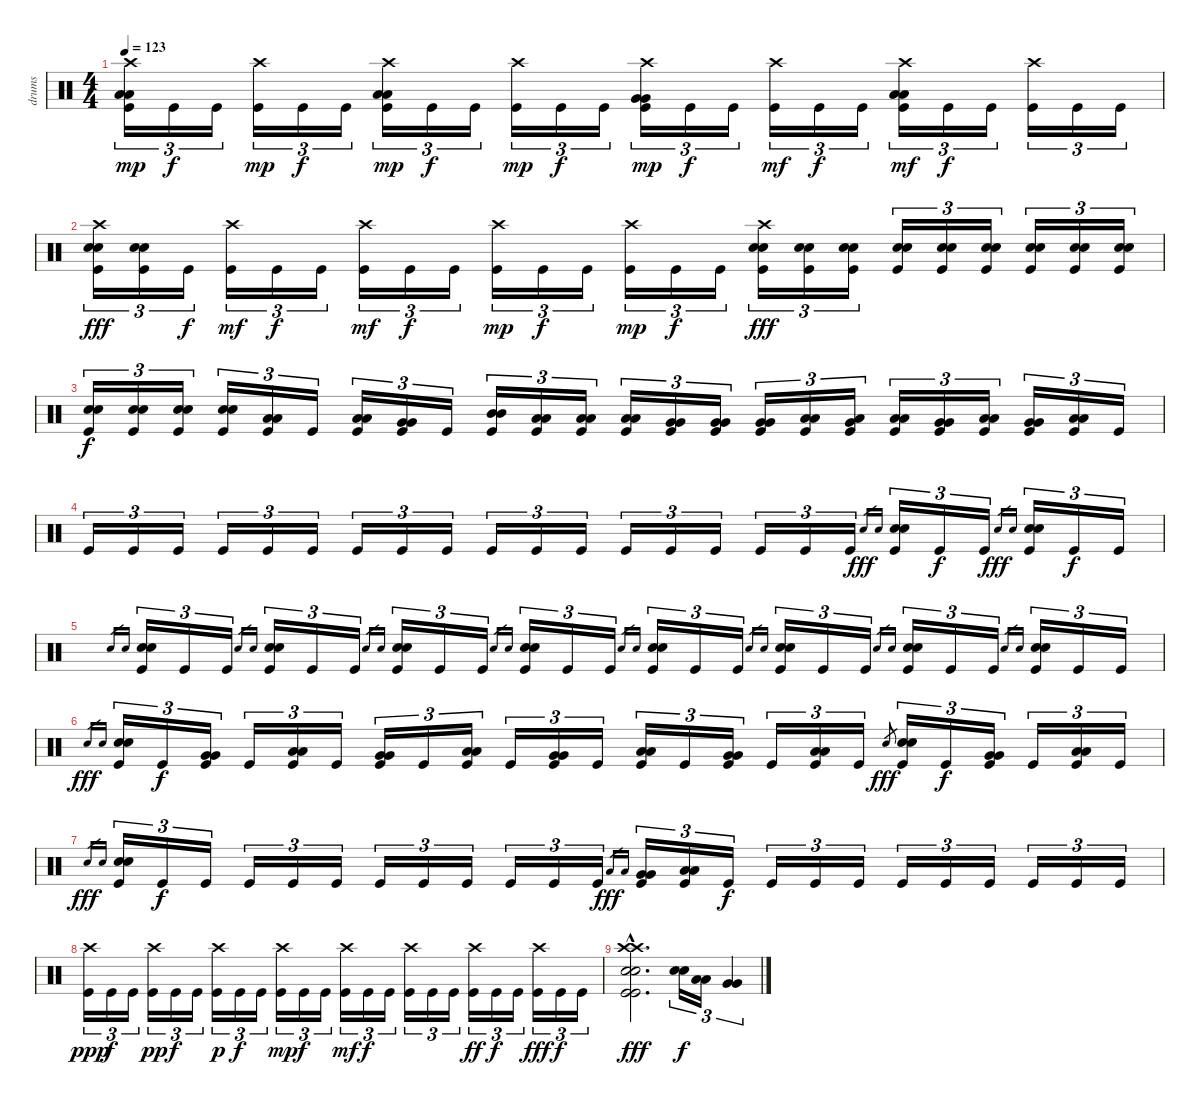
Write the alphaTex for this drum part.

\track ("drums" "drums") {instrument percussion}
\staff {score}
\articulation defaults
\ts (4 4)
\tempo 123
\clef neutral
\ks c
("Crash high (hit)" "Low Floor Tom (hit)" "Low Floor Tom (hit)" "Kick (hit)").16{tu (3 2) dy mp} "Kick (hit)".16{tu (3 2) dy f} "Kick (hit)".16{tu (3 2)} ("Crash high (hit)" "Kick (hit)").16{tu (3 2) dy mp} "Kick (hit)".16{tu (3 2) dy f} "Kick (hit)".16{tu (3 2)} ("Crash high (hit)" "Low Tom (hit)" "Low Tom (hit)" "Kick (hit)").16{tu (3 2) dy mp} "Kick (hit)".16{tu (3 2) dy f} "Kick (hit)".16{tu (3 2)} ("Crash high (hit)" "Kick (hit)").16{tu (3 2) dy mp} "Kick (hit)".16{tu (3 2) dy f} "Kick (hit)".16{tu (3 2)} ("Crash high (hit)" "Very Low Tom (hit)" "Very Low Tom (hit)" "Kick (hit)").16{tu (3 2) dy mp} "Kick (hit)".16{tu (3 2) dy f} "Kick (hit)".16{tu (3 2)} ("Crash high (hit)" "Kick (hit)").16{tu (3 2) dy mf} "Kick (hit)".16{tu (3 2) dy f} "Kick (hit)".16{tu (3 2)} ("Crash high (hit)" "Low Floor Tom (hit)" "Low Floor Tom (hit)" "Kick (hit)").16{tu (3 2) dy mf} "Kick (hit)".16{tu (3 2) dy f} "Kick (hit)".16{tu (3 2)} ("Crash high (hit)" "Kick (hit)").16{tu (3 2)} "Kick (hit)".16{tu (3 2)} "Kick (hit)".16{tu (3 2)} |
("Crash high (hit)" "Snare (hit) 2" "Snare (hit) 2" "Kick (hit)").16{tu (3 2) dy fff} ("Snare (hit) 2" "Snare (hit) 2" "Kick (hit)").16{tu (3 2)} "Kick (hit)".16{tu (3 2) dy f} ("Crash high (hit)" "Kick (hit)").16{tu (3 2) dy mf} "Kick (hit)".16{tu (3 2) dy f} "Kick (hit)".16{tu (3 2)} ("Crash high (hit)" "Kick (hit)").16{tu (3 2) dy mf} "Kick (hit)".16{tu (3 2) dy f} "Kick (hit)".16{tu (3 2)} ("Crash high (hit)" "Kick (hit)").16{tu (3 2) dy mp} "Kick (hit)".16{tu (3 2) dy f} "Kick (hit)".16{tu (3 2)} ("Crash high (hit)" "Kick (hit)").16{tu (3 2) dy mp} "Kick (hit)".16{tu (3 2) dy f} "Kick (hit)".16{tu (3 2)} ("Crash high (hit)" "Snare (hit) 2" "Snare (hit) 2" "Kick (hit)").16{tu (3 2) dy fff} ("Snare (hit) 2" "Snare (hit) 2" "Kick (hit)").16{tu (3 2)} ("Snare (hit) 2" "Snare (hit) 2" "Kick (hit)").16{tu (3 2)} ("Snare (hit) 2" "Snare (hit) 2" "Kick (hit)").16{tu (3 2)} ("Snare (hit) 2" "Snare (hit) 2" "Kick (hit)").16{tu (3 2)} ("Snare (hit) 2" "Snare (hit) 2" "Kick (hit)").16{tu (3 2)} ("Snare (hit) 2" "Snare (hit) 2" "Kick (hit)").16{tu (3 2)} ("Snare (hit) 2" "Snare (hit) 2" "Kick (hit)").16{tu (3 2)} ("Snare (hit) 2" "Snare (hit) 2" "Kick (hit)").16{tu (3 2)} |
("Snare (hit) 2" "Snare (hit) 2" "Kick (hit)").16{tu (3 2) dy f} ("Snare (hit) 2" "Snare (hit) 2" "Kick (hit)").16{tu (3 2)} ("Snare (hit) 2" "Snare (hit) 2" "Kick (hit)").16{tu (3 2)} ("Snare (hit) 2" "Snare (hit) 2" "Kick (hit)").16{tu (3 2)} ("Low Tom (hit)" "Low Tom (hit)" "Kick (hit)").16{tu (3 2)} "Kick (hit)".16{tu (3 2)} ("Low Tom (hit)" "Low Tom (hit)" "Kick (hit)").16{tu (3 2)} ("Very Low Tom (hit)" "Very Low Tom (hit)" "Kick (hit)").16{tu (3 2)} "Kick (hit)".16{tu (3 2)} ("Mid Tom (hit)" "Mid Tom (hit)" "Kick (hit)").16{tu (3 2)} ("Low Tom (hit)" "Low Tom (hit)" "Kick (hit)").16{tu (3 2)} ("Low Floor Tom (hit)" "Low Floor Tom (hit)" "Kick (hit)").16{tu (3 2)} ("Low Tom (hit)" "Low Tom (hit)" "Kick (hit)").16{tu (3 2)} ("Very Low Tom (hit)" "Very Low Tom (hit)" "Kick (hit)").16{tu (3 2)} ("Very Low Tom (hit)" "Very Low Tom (hit)" "Kick (hit)").16{tu (3 2)} ("Very Low Tom (hit)" "Very Low Tom (hit)" "Kick (hit)").16{tu (3 2)} ("Low Floor Tom (hit)" "Low Floor Tom (hit)" "Kick (hit)").16{tu (3 2)} ("Very Low Tom (hit)" "Low Floor Tom (hit)" "Kick (hit)").16{tu (3 2)} ("Low Tom (hit)" "Low Tom (hit)" "Kick (hit)").16{tu (3 2)} ("Very Low Tom (hit)" "Very Low Tom (hit)" "Kick (hit)").16{tu (3 2)} ("Low Floor Tom (hit)" "Low Floor Tom (hit)" "Kick (hit)").16{tu (3 2)} ("Very Low Tom (hit)" "Very Low Tom (hit)" "Kick (hit)").16{tu (3 2)} ("Low Floor Tom (hit)" "Low Floor Tom (hit)" "Kick (hit)").16{tu (3 2)} "Kick (hit)".16{tu (3 2)} |
"Kick (hit)".16{tu (3 2)} "Kick (hit)".16{tu (3 2)} "Kick (hit)".16{tu (3 2)} "Kick (hit)".16{tu (3 2)} "Kick (hit)".16{tu (3 2)} "Kick (hit)".16{tu (3 2)} "Kick (hit)".16{tu (3 2)} "Kick (hit)".16{tu (3 2)} "Kick (hit)".16{tu (3 2)} "Kick (hit)".16{tu (3 2)} "Kick (hit)".16{tu (3 2)} "Kick (hit)".16{tu (3 2)} "Kick (hit)".16{tu (3 2)} "Kick (hit)".16{tu (3 2)} "Kick (hit)".16{tu (3 2)} "Kick (hit)".16{tu (3 2)} "Kick (hit)".16{tu (3 2)} "Kick (hit)".16{tu (3 2)} "Snare (hit) 2".16{gr dy fff} "Snare (hit) 2".16{gr} ("Snare (hit) 2" "Snare (hit) 2" "Kick (hit)").16{tu (3 2)} "Kick (hit)".16{tu (3 2) dy f} "Kick (hit)".16{tu (3 2)} "Snare (hit) 2".16{gr dy fff} "Snare (hit) 2".16{gr} ("Snare (hit) 2" "Snare (hit) 2" "Kick (hit)").16{tu (3 2)} "Kick (hit)".16{tu (3 2) dy f} "Kick (hit)".16{tu (3 2)} |
"Snare (hit) 2".16{gr} "Snare (hit) 2".16{gr} ("Snare (hit) 2" "Snare (hit) 2" "Kick (hit)").16{tu (3 2)} "Kick (hit)".16{tu (3 2)} "Kick (hit)".16{tu (3 2)} "Snare (hit) 2".16{gr} "Snare (hit) 2".16{gr} ("Snare (hit) 2" "Snare (hit) 2" "Kick (hit)").16{tu (3 2)} "Kick (hit)".16{tu (3 2)} "Kick (hit)".16{tu (3 2)} "Snare (hit) 2".16{gr} "Snare (hit) 2".16{gr} ("Snare (hit) 2" "Snare (hit) 2" "Kick (hit)").16{tu (3 2)} "Kick (hit)".16{tu (3 2)} "Kick (hit)".16{tu (3 2)} "Snare (hit) 2".16{gr} "Snare (hit) 2".16{gr} ("Snare (hit) 2" "Snare (hit) 2" "Kick (hit)").16{tu (3 2)} "Kick (hit)".16{tu (3 2)} "Kick (hit)".16{tu (3 2)} "Snare (hit) 2".16{gr} "Snare (hit) 2".16{gr} ("Snare (hit) 2" "Snare (hit) 2" "Kick (hit)").16{tu (3 2)} "Kick (hit)".16{tu (3 2)} "Kick (hit)".16{tu (3 2)} "Snare (hit) 2".16{gr} "Snare (hit) 2".16{gr} ("Snare (hit) 2" "Snare (hit) 2" "Kick (hit)").16{tu (3 2)} "Kick (hit)".16{tu (3 2)} "Kick (hit)".16{tu (3 2)} "Snare (hit) 2".16{gr} "Snare (hit) 2".16{gr} ("Snare (hit) 2" "Snare (hit) 2" "Kick (hit)").16{tu (3 2)} "Kick (hit)".16{tu (3 2)} "Kick (hit)".16{tu (3 2)} "Snare (hit) 2".16{gr} "Snare (hit) 2".16{gr} ("Snare (hit) 2" "Snare (hit) 2" "Kick (hit)").16{tu (3 2)} "Kick (hit)".16{tu (3 2)} "Kick (hit)".16{tu (3 2)} |
"Snare (hit) 2".16{gr dy fff} "Snare (hit) 2".16{gr} ("Snare (hit) 2" "Snare (hit) 2" "Kick (hit)").16{tu (3 2)} "Kick (hit)".16{tu (3 2) dy f} ("Very Low Tom (hit)" "Very Low Tom (hit)" "Kick (hit)").16{tu (3 2)} "Kick (hit)".16{tu (3 2)} ("Low Floor Tom (hit)" "Low Floor Tom (hit)" "Kick (hit)").16{tu (3 2)} "Kick (hit)".16{tu (3 2)} ("Very Low Tom (hit)" "Very Low Tom (hit)" "Kick (hit)").16{tu (3 2)} "Kick (hit)".16{tu (3 2)} ("Low Floor Tom (hit)" "Low Floor Tom (hit)" "Kick (hit)").16{tu (3 2)} "Kick (hit)".16{tu (3 2)} ("Very Low Tom (hit)" "Very Low Tom (hit)" "Kick (hit)").16{tu (3 2)} "Kick (hit)".16{tu (3 2)} ("Low Floor Tom (hit)" "Low Floor Tom (hit)" "Kick (hit)").16{tu (3 2)} "Kick (hit)".16{tu (3 2)} ("Very Low Tom (hit)" "Very Low Tom (hit)" "Kick (hit)").16{tu (3 2)} "Kick (hit)".16{tu (3 2)} ("Low Floor Tom (hit)" "Low Floor Tom (hit)" "Kick (hit)").16{tu (3 2)} "Kick (hit)".16{tu (3 2)} "Snare (hit) 2".8{gr dy fff} ("Snare (hit) 2" "Snare (hit) 2" "Kick (hit)").16{tu (3 2)} "Kick (hit)".16{tu (3 2) dy f} ("Very Low Tom (hit)" "Very Low Tom (hit)" "Kick (hit)").16{tu (3 2)} "Kick (hit)".16{tu (3 2)} ("Low Floor Tom (hit)" "Low Floor Tom (hit)" "Kick (hit)").16{tu (3 2)} "Kick (hit)".16{tu (3 2)} |
"Snare (hit) 2".16{gr dy fff} "Snare (hit) 2".16{gr} ("Snare (hit) 2" "Snare (hit) 2" "Kick (hit)").16{tu (3 2)} "Kick (hit)".16{tu (3 2) dy f} "Kick (hit)".16{tu (3 2)} "Kick (hit)".16{tu (3 2)} "Kick (hit)".16{tu (3 2)} "Kick (hit)".16{tu (3 2)} "Kick (hit)".16{tu (3 2)} "Kick (hit)".16{tu (3 2)} "Kick (hit)".16{tu (3 2)} "Kick (hit)".16{tu (3 2)} "Kick (hit)".16{tu (3 2)} "Kick (hit)".16{tu (3 2)} "Low Tom (hit)".16{gr dy fff} "Low Tom (hit)".16{gr} ("Very Low Tom (hit)" "Very Low Tom (hit)" "Kick (hit)").16{tu (3 2)} ("Low Floor Tom (hit)" "Low Floor Tom (hit)" "Kick (hit)").16{tu (3 2)} "Kick (hit)".16{tu (3 2) dy f} "Kick (hit)".16{tu (3 2)} "Kick (hit)".16{tu (3 2)} "Kick (hit)".16{tu (3 2)} "Kick (hit)".16{tu (3 2)} "Kick (hit)".16{tu (3 2)} "Kick (hit)".16{tu (3 2)} "Kick (hit)".16{tu (3 2)} "Kick (hit)".16{tu (3 2)} "Kick (hit)".16{tu (3 2)} |
("Crash high (hit)" "Kick (hit)").16{tu (3 2) dy ppp} "Kick (hit)".16{tu (3 2) dy f} "Kick (hit)".16{tu (3 2)} ("Crash high (hit)" "Kick (hit)").16{tu (3 2) dy pp} "Kick (hit)".16{tu (3 2) dy f} "Kick (hit)".16{tu (3 2)} ("Crash high (hit)" "Kick (hit)").16{tu (3 2) dy p} "Kick (hit)".16{tu (3 2) dy f} "Kick (hit)".16{tu (3 2)} ("Crash high (hit)" "Kick (hit)").16{tu (3 2) dy mp} "Kick (hit)".16{tu (3 2) dy f} "Kick (hit)".16{tu (3 2)} ("Crash high (hit)" "Kick (hit)").16{tu (3 2) dy mf} "Kick (hit)".16{tu (3 2) dy f} "Kick (hit)".16{tu (3 2)} ("Crash high (hit)" "Kick (hit)").16{tu (3 2)} "Kick (hit)".16{tu (3 2)} "Kick (hit)".16{tu (3 2)} ("Crash high (hit)" "Kick (hit)").16{tu (3 2) dy ff} "Kick (hit)".16{tu (3 2) dy f} "Kick (hit)".16{tu (3 2)} ("Crash high (hit)" "Kick (hit)").16{tu (3 2) dy fff} "Kick (hit)".16{tu (3 2) dy f} "Kick (hit)".16{tu (3 2)} |
("Crash high (hit)"{hac} "Crash high (hit)"{hac} "Snare (hit) 2"{hac} "Snare (hit) 2"{hac} "Kick (hit)"{hac} "Kick (hit)"{hac}).2{d dy fff} ("Snare (hit) 2" "Snare (hit) 2").16{tu (3 2) dy f} ("Low Tom (hit)" "Low Tom (hit)").16{tu (3 2)} ("Very Low Tom (hit)" "Very Low Tom (hit)").4{tu (3 2)}
